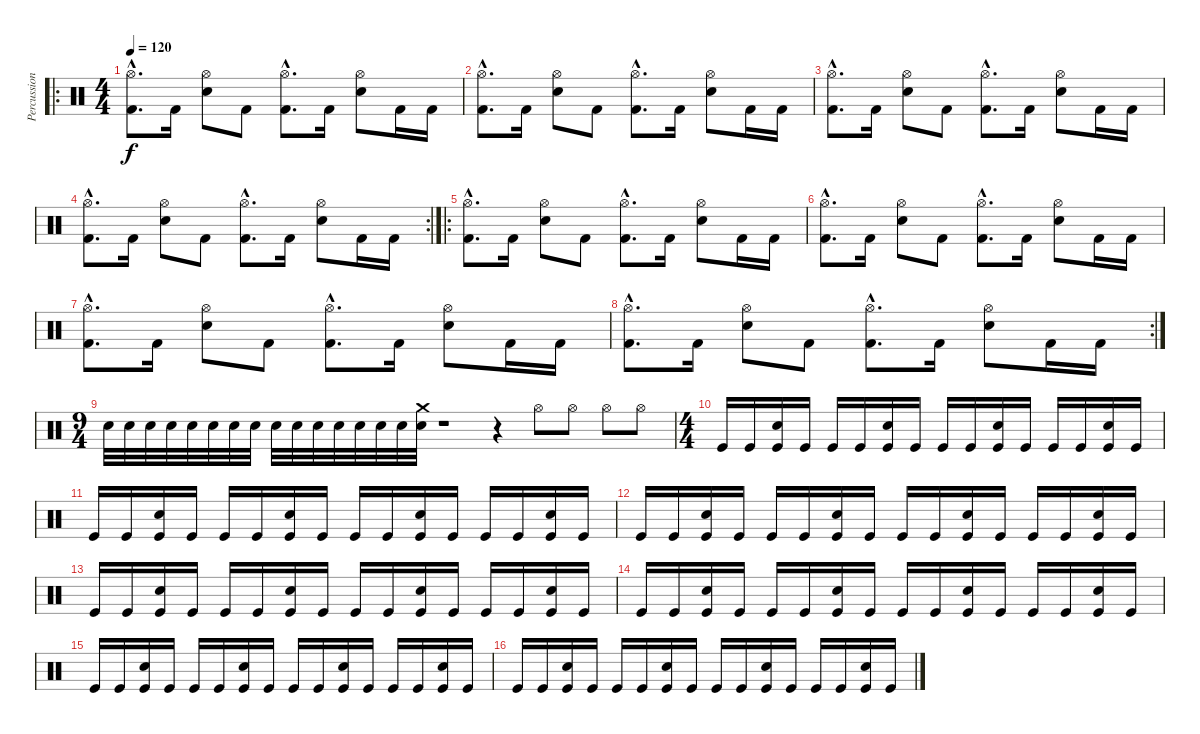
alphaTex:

\track ("Percussions" "Percussion") {instrument percussion}
\staff {score}
\articulation defaults
\ro
\ts (4 4)
\tempo 120
\clef neutral
\ks c
("Kick (hit) 2"{hac} "Hi-Hat (open)"{hac}).8{d dy f} "Kick (hit) 2".16 ("Electric Snare (hit)" "Hi-Hat (open)").8 "Kick (hit) 2".8 ("Kick (hit) 2"{hac} "Hi-Hat (open)"{hac}).8{d} "Kick (hit) 2".16 ("Electric Snare (hit)" "Hi-Hat (open)").8 "Kick (hit) 2".16 "Kick (hit) 2".16 |
("Kick (hit) 2"{hac} "Hi-Hat (open)"{hac}).8{d} "Kick (hit) 2".16 ("Electric Snare (hit)" "Hi-Hat (open)").8 "Kick (hit) 2".8 ("Kick (hit) 2"{hac} "Hi-Hat (open)"{hac}).8{d} "Kick (hit) 2".16 ("Electric Snare (hit)" "Hi-Hat (open)").8 "Kick (hit) 2".16 "Kick (hit) 2".16 |
("Kick (hit) 2"{hac} "Hi-Hat (open)"{hac}).8{d} "Kick (hit) 2".16 ("Electric Snare (hit)" "Hi-Hat (open)").8 "Kick (hit) 2".8 ("Kick (hit) 2"{hac} "Hi-Hat (open)"{hac}).8{d} "Kick (hit) 2".16 ("Electric Snare (hit)" "Hi-Hat (open)").8 "Kick (hit) 2".16 "Kick (hit) 2".16 |
\rc 2
("Kick (hit) 2"{hac} "Hi-Hat (open)"{hac}).8{d} "Kick (hit) 2".16 ("Electric Snare (hit)" "Hi-Hat (open)").8 "Kick (hit) 2".8 ("Kick (hit) 2"{hac} "Hi-Hat (open)"{hac}).8{d} "Kick (hit) 2".16 ("Electric Snare (hit)" "Hi-Hat (open)").8 "Kick (hit) 2".16 "Kick (hit) 2".16 |
\ro
("Kick (hit) 2"{hac} "Hi-Hat (open)"{hac}).8{d} "Kick (hit) 2".16 ("Electric Snare (hit)" "Hi-Hat (open)").8 "Kick (hit) 2".8 ("Kick (hit) 2"{hac} "Hi-Hat (open)"{hac}).8{d} "Kick (hit) 2".16 ("Electric Snare (hit)" "Hi-Hat (open)").8 "Kick (hit) 2".16 "Kick (hit) 2".16 |
("Kick (hit) 2"{hac} "Hi-Hat (open)"{hac}).8{d} "Kick (hit) 2".16 ("Electric Snare (hit)" "Hi-Hat (open)").8 "Kick (hit) 2".8 ("Kick (hit) 2"{hac} "Hi-Hat (open)"{hac}).8{d} "Kick (hit) 2".16 ("Electric Snare (hit)" "Hi-Hat (open)").8 "Kick (hit) 2".16 "Kick (hit) 2".16 |
("Kick (hit) 2"{hac} "Hi-Hat (open)"{hac}).8{d} "Kick (hit) 2".16 ("Electric Snare (hit)" "Hi-Hat (open)").8 "Kick (hit) 2".8 ("Kick (hit) 2"{hac} "Hi-Hat (open)"{hac}).8{d} "Kick (hit) 2".16 ("Electric Snare (hit)" "Hi-Hat (open)").8 "Kick (hit) 2".16 "Kick (hit) 2".16 |
\rc 2
("Kick (hit) 2"{hac} "Hi-Hat (open)"{hac}).8{d} "Kick (hit) 2".16 ("Electric Snare (hit)" "Hi-Hat (open)").8 "Kick (hit) 2".8 ("Kick (hit) 2"{hac} "Hi-Hat (open)"{hac}).8{d} "Kick (hit) 2".16 ("Electric Snare (hit)" "Hi-Hat (open)").8 "Kick (hit) 2".16 "Kick (hit) 2".16 |
\ts (9 4)
"Electric Snare (hit)".32 "Electric Snare (hit)".32 "Electric Snare (hit)".32 "Electric Snare (hit)".32 "Electric Snare (hit)".32 "Electric Snare (hit)".32 "Electric Snare (hit)".32 "Electric Snare (hit)".32 "Electric Snare (hit)".32 "Electric Snare (hit)".32 "Electric Snare (hit)".32 "Electric Snare (hit)".32 "Electric Snare (hit)".32 "Electric Snare (hit)".32 "Electric Snare (hit)".32 ("Electric Snare (hit)" "Crash medium (hit)").32 r.1 r.4 "Hi-Hat (open)".8 "Hi-Hat (open)".8 "Hi-Hat (open)".8 "Hi-Hat (open)".8 |
\ts (4 4)
"Kick (hit)".16 "Kick (hit)".16 ("Kick (hit)" "Electric Snare (hit)").16 "Kick (hit)".16 "Kick (hit)".16 "Kick (hit)".16 ("Kick (hit)" "Electric Snare (hit)").16 "Kick (hit)".16 "Kick (hit)".16 "Kick (hit)".16 ("Kick (hit)" "Electric Snare (hit)").16 "Kick (hit)".16 "Kick (hit)".16 "Kick (hit)".16 ("Kick (hit)" "Electric Snare (hit)").16 "Kick (hit)".16 |
"Kick (hit)".16 "Kick (hit)".16 ("Kick (hit)" "Electric Snare (hit)").16 "Kick (hit)".16 "Kick (hit)".16 "Kick (hit)".16 ("Kick (hit)" "Electric Snare (hit)").16 "Kick (hit)".16 "Kick (hit)".16 "Kick (hit)".16 ("Kick (hit)" "Electric Snare (hit)").16 "Kick (hit)".16 "Kick (hit)".16 "Kick (hit)".16 ("Kick (hit)" "Electric Snare (hit)").16 "Kick (hit)".16 |
"Kick (hit)".16 "Kick (hit)".16 ("Kick (hit)" "Electric Snare (hit)").16 "Kick (hit)".16 "Kick (hit)".16 "Kick (hit)".16 ("Kick (hit)" "Electric Snare (hit)").16 "Kick (hit)".16 "Kick (hit)".16 "Kick (hit)".16 ("Kick (hit)" "Electric Snare (hit)").16 "Kick (hit)".16 "Kick (hit)".16 "Kick (hit)".16 ("Kick (hit)" "Electric Snare (hit)").16 "Kick (hit)".16 |
"Kick (hit)".16 "Kick (hit)".16 ("Kick (hit)" "Electric Snare (hit)").16 "Kick (hit)".16 "Kick (hit)".16 "Kick (hit)".16 ("Kick (hit)" "Electric Snare (hit)").16 "Kick (hit)".16 "Kick (hit)".16 "Kick (hit)".16 ("Kick (hit)" "Electric Snare (hit)").16 "Kick (hit)".16 "Kick (hit)".16 "Kick (hit)".16 ("Kick (hit)" "Electric Snare (hit)").16 "Kick (hit)".16 |
"Kick (hit)".16 "Kick (hit)".16 ("Kick (hit)" "Electric Snare (hit)").16 "Kick (hit)".16 "Kick (hit)".16 "Kick (hit)".16 ("Kick (hit)" "Electric Snare (hit)").16 "Kick (hit)".16 "Kick (hit)".16 "Kick (hit)".16 ("Kick (hit)" "Electric Snare (hit)").16 "Kick (hit)".16 "Kick (hit)".16 "Kick (hit)".16 ("Kick (hit)" "Electric Snare (hit)").16 "Kick (hit)".16 |
"Kick (hit)".16 "Kick (hit)".16 ("Kick (hit)" "Electric Snare (hit)").16 "Kick (hit)".16 "Kick (hit)".16 "Kick (hit)".16 ("Kick (hit)" "Electric Snare (hit)").16 "Kick (hit)".16 "Kick (hit)".16 "Kick (hit)".16 ("Kick (hit)" "Electric Snare (hit)").16 "Kick (hit)".16 "Kick (hit)".16 "Kick (hit)".16 ("Kick (hit)" "Electric Snare (hit)").16 "Kick (hit)".16 |
"Kick (hit)".16 "Kick (hit)".16 ("Kick (hit)" "Electric Snare (hit)").16 "Kick (hit)".16 "Kick (hit)".16 "Kick (hit)".16 ("Kick (hit)" "Electric Snare (hit)").16 "Kick (hit)".16 "Kick (hit)".16 "Kick (hit)".16 ("Kick (hit)" "Electric Snare (hit)").16 "Kick (hit)".16 "Kick (hit)".16 "Kick (hit)".16 ("Kick (hit)" "Electric Snare (hit)").16 "Kick (hit)".16
